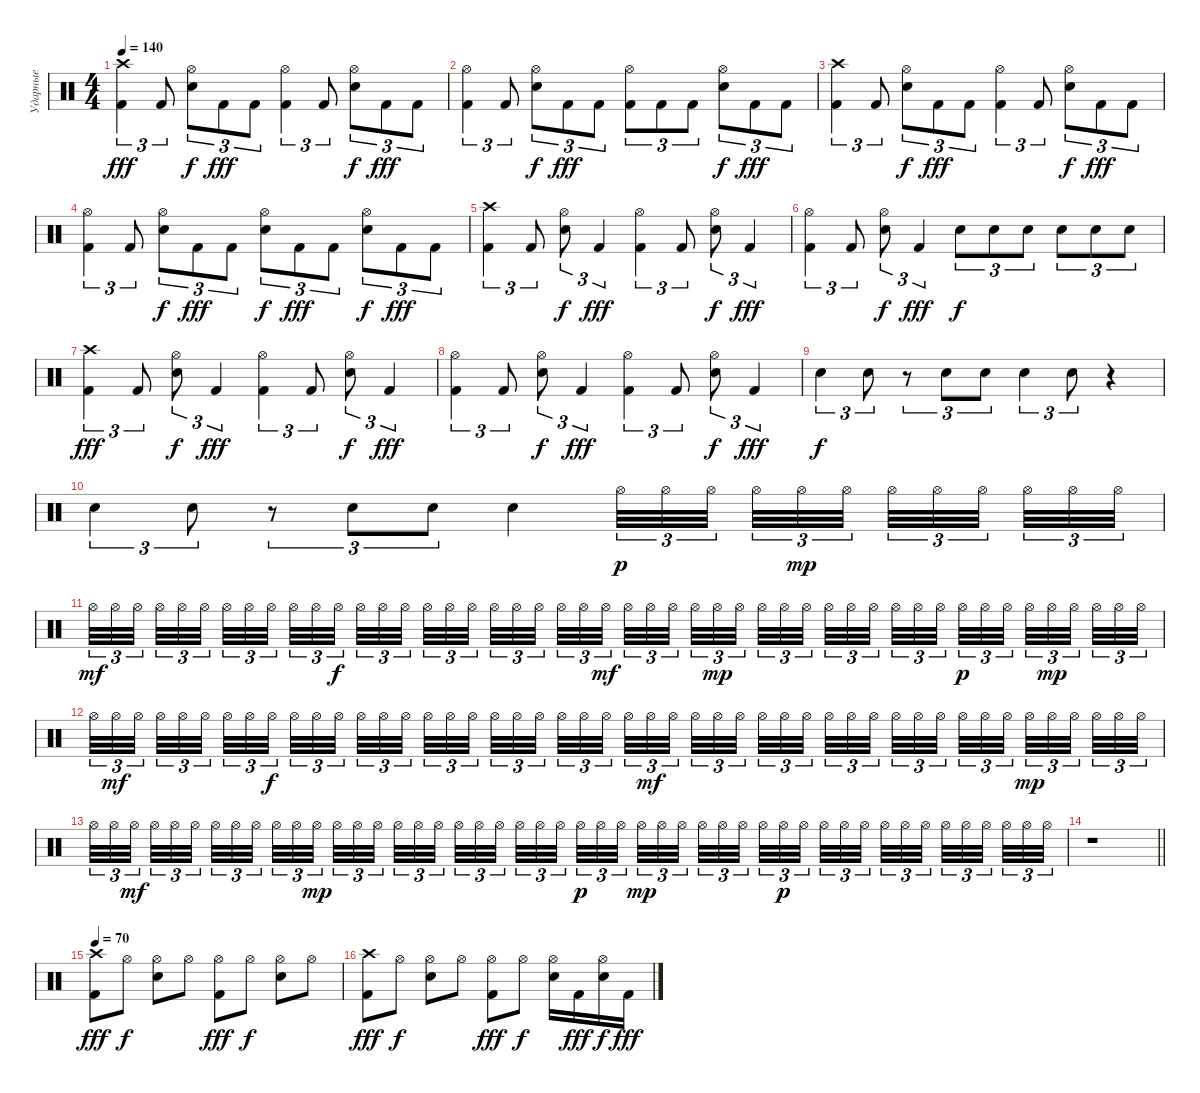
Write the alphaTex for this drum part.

\track ("Ударные" "Ударные") {instrument percussion}
\staff {score}
\articulation defaults
\ts (4 4)
\tempo 140
\clef neutral
\ks c
("Kick (hit) 2" "Crash high (hit)").4{tu (3 2) dy fff} "Kick (hit) 2".8{tu (3 2)} ("Snare (hit) 2" "Hi-Hat (open)").8{tu (3 2) dy f} "Kick (hit) 2".8{tu (3 2) dy fff} "Kick (hit) 2".8{tu (3 2)} ("Kick (hit) 2" "Hi-Hat (open)").4{tu (3 2)} "Kick (hit) 2".8{tu (3 2)} ("Snare (hit) 2" "Hi-Hat (open)").8{tu (3 2) dy f} "Kick (hit) 2".8{tu (3 2) dy fff} "Kick (hit) 2".8{tu (3 2)} |
("Kick (hit) 2" "Hi-Hat (open)").4{tu (3 2)} "Kick (hit) 2".8{tu (3 2)} ("Snare (hit) 2" "Hi-Hat (open)").8{tu (3 2) dy f} "Kick (hit) 2".8{tu (3 2) dy fff} "Kick (hit) 2".8{tu (3 2)} ("Kick (hit) 2" "Hi-Hat (open)").8{tu (3 2)} "Kick (hit) 2".8{tu (3 2)} "Kick (hit) 2".8{tu (3 2)} ("Snare (hit) 2" "Hi-Hat (open)").8{tu (3 2) dy f} "Kick (hit) 2".8{tu (3 2) dy fff} "Kick (hit) 2".8{tu (3 2)} |
("Kick (hit) 2" "Crash high (hit)").4{tu (3 2)} "Kick (hit) 2".8{tu (3 2)} ("Snare (hit) 2" "Hi-Hat (open)").8{tu (3 2) dy f} "Kick (hit) 2".8{tu (3 2) dy fff} "Kick (hit) 2".8{tu (3 2)} ("Kick (hit) 2" "Hi-Hat (open)").4{tu (3 2)} "Kick (hit) 2".8{tu (3 2)} ("Snare (hit) 2" "Hi-Hat (open)").8{tu (3 2) dy f} "Kick (hit) 2".8{tu (3 2) dy fff} "Kick (hit) 2".8{tu (3 2)} |
("Kick (hit) 2" "Hi-Hat (open)").4{tu (3 2)} "Kick (hit) 2".8{tu (3 2)} ("Snare (hit) 2" "Hi-Hat (open)").8{tu (3 2) dy f} "Kick (hit) 2".8{tu (3 2) dy fff} "Kick (hit) 2".8{tu (3 2)} ("Snare (hit) 2" "Hi-Hat (open)").8{tu (3 2) dy f} "Kick (hit) 2".8{tu (3 2) dy fff} "Kick (hit) 2".8{tu (3 2)} ("Snare (hit) 2" "Hi-Hat (open)").8{tu (3 2) dy f} "Kick (hit) 2".8{tu (3 2) dy fff} "Kick (hit) 2".8{tu (3 2)} |
("Kick (hit) 2" "Crash high (hit)").4{tu (3 2)} "Kick (hit) 2".8{tu (3 2)} ("Snare (hit) 2" "Hi-Hat (open)").8{tu (3 2) dy f} "Kick (hit) 2".4{tu (3 2) dy fff} ("Kick (hit) 2" "Hi-Hat (open)").4{tu (3 2)} "Kick (hit) 2".8{tu (3 2)} ("Snare (hit) 2" "Hi-Hat (open)").8{tu (3 2) dy f} "Kick (hit) 2".4{tu (3 2) dy fff} |
("Kick (hit) 2" "Hi-Hat (open)").4{tu (3 2)} "Kick (hit) 2".8{tu (3 2)} ("Snare (hit) 2" "Hi-Hat (open)").8{tu (3 2) dy f} "Kick (hit) 2".4{tu (3 2) dy fff} "Snare (hit) 2".8{tu (3 2) dy f} "Snare (hit) 2".8{tu (3 2)} "Snare (hit) 2".8{tu (3 2)} "Snare (hit) 2".8{tu (3 2)} "Snare (hit) 2".8{tu (3 2)} "Snare (hit) 2".8{tu (3 2)} |
("Kick (hit) 2" "Crash high (hit)").4{tu (3 2) dy fff} "Kick (hit) 2".8{tu (3 2)} ("Snare (hit) 2" "Hi-Hat (open)").8{tu (3 2) dy f} "Kick (hit) 2".4{tu (3 2) dy fff} ("Kick (hit) 2" "Hi-Hat (open)").4{tu (3 2)} "Kick (hit) 2".8{tu (3 2)} ("Snare (hit) 2" "Hi-Hat (open)").8{tu (3 2) dy f} "Kick (hit) 2".4{tu (3 2) dy fff} |
("Kick (hit) 2" "Hi-Hat (open)").4{tu (3 2)} "Kick (hit) 2".8{tu (3 2)} ("Snare (hit) 2" "Hi-Hat (open)").8{tu (3 2) dy f} "Kick (hit) 2".4{tu (3 2) dy fff} ("Kick (hit) 2" "Hi-Hat (open)").4{tu (3 2)} "Kick (hit) 2".8{tu (3 2)} ("Snare (hit) 2" "Hi-Hat (open)").8{tu (3 2) dy f} "Kick (hit) 2".4{tu (3 2) dy fff} |
"Snare (hit) 2".4{tu (3 2) dy f} "Snare (hit) 2".8{tu (3 2)} r.8{tu (3 2)} "Snare (hit) 2".8{tu (3 2)} "Snare (hit) 2".8{tu (3 2)} "Snare (hit) 2".4{tu (3 2)} "Snare (hit) 2".8{tu (3 2)} r.4 |
"Snare (hit) 2".4{tu (3 2)} "Snare (hit) 2".8{tu (3 2)} r.8{tu (3 2)} "Snare (hit) 2".8{tu (3 2)} "Snare (hit) 2".8{tu (3 2)} "Snare (hit) 2".4 "Hi-Hat (open)".32{tu (3 2) dy p} "Hi-Hat (open)".32{tu (3 2)} "Hi-Hat (open)".32{tu (3 2) beam splitsecondary} "Hi-Hat (open)".32{tu (3 2)} "Hi-Hat (open)".32{tu (3 2) dy mp} "Hi-Hat (open)".32{tu (3 2) beam splitsecondary} "Hi-Hat (open)".32{tu (3 2)} "Hi-Hat (open)".32{tu (3 2)} "Hi-Hat (open)".32{tu (3 2) beam splitsecondary} "Hi-Hat (open)".32{tu (3 2)} "Hi-Hat (open)".32{tu (3 2)} "Hi-Hat (open)".32{tu (3 2)} |
"Hi-Hat (open)".32{tu (3 2) dy mf} "Hi-Hat (open)".32{tu (3 2)} "Hi-Hat (open)".32{tu (3 2) beam splitsecondary} "Hi-Hat (open)".32{tu (3 2)} "Hi-Hat (open)".32{tu (3 2)} "Hi-Hat (open)".32{tu (3 2) beam splitsecondary} "Hi-Hat (open)".32{tu (3 2)} "Hi-Hat (open)".32{tu (3 2)} "Hi-Hat (open)".32{tu (3 2) beam splitsecondary} "Hi-Hat (open)".32{tu (3 2)} "Hi-Hat (open)".32{tu (3 2)} "Hi-Hat (open)".32{tu (3 2) dy f} "Hi-Hat (open)".32{tu (3 2)} "Hi-Hat (open)".32{tu (3 2)} "Hi-Hat (open)".32{tu (3 2) beam splitsecondary} "Hi-Hat (open)".32{tu (3 2)} "Hi-Hat (open)".32{tu (3 2)} "Hi-Hat (open)".32{tu (3 2) beam splitsecondary} "Hi-Hat (open)".32{tu (3 2)} "Hi-Hat (open)".32{tu (3 2)} "Hi-Hat (open)".32{tu (3 2) beam splitsecondary} "Hi-Hat (open)".32{tu (3 2)} "Hi-Hat (open)".32{tu (3 2)} "Hi-Hat (open)".32{tu (3 2) dy mf} "Hi-Hat (open)".32{tu (3 2)} "Hi-Hat (open)".32{tu (3 2)} "Hi-Hat (open)".32{tu (3 2) beam splitsecondary} "Hi-Hat (open)".32{tu (3 2)} "Hi-Hat (open)".32{tu (3 2) dy mp} "Hi-Hat (open)".32{tu (3 2) beam splitsecondary} "Hi-Hat (open)".32{tu (3 2)} "Hi-Hat (open)".32{tu (3 2)} "Hi-Hat (open)".32{tu (3 2) beam splitsecondary} "Hi-Hat (open)".32{tu (3 2)} "Hi-Hat (open)".32{tu (3 2)} "Hi-Hat (open)".32{tu (3 2)} "Hi-Hat (open)".32{tu (3 2)} "Hi-Hat (open)".32{tu (3 2)} "Hi-Hat (open)".32{tu (3 2) beam splitsecondary} "Hi-Hat (open)".32{tu (3 2) dy p} "Hi-Hat (open)".32{tu (3 2)} "Hi-Hat (open)".32{tu (3 2) beam splitsecondary} "Hi-Hat (open)".32{tu (3 2)} "Hi-Hat (open)".32{tu (3 2) dy mp} "Hi-Hat (open)".32{tu (3 2) beam splitsecondary} "Hi-Hat (open)".32{tu (3 2)} "Hi-Hat (open)".32{tu (3 2)} "Hi-Hat (open)".32{tu (3 2)} |
"Hi-Hat (open)".32{tu (3 2)} "Hi-Hat (open)".32{tu (3 2) dy mf} "Hi-Hat (open)".32{tu (3 2) beam splitsecondary} "Hi-Hat (open)".32{tu (3 2)} "Hi-Hat (open)".32{tu (3 2)} "Hi-Hat (open)".32{tu (3 2) beam splitsecondary} "Hi-Hat (open)".32{tu (3 2)} "Hi-Hat (open)".32{tu (3 2)} "Hi-Hat (open)".32{tu (3 2) dy f beam splitsecondary} "Hi-Hat (open)".32{tu (3 2)} "Hi-Hat (open)".32{tu (3 2)} "Hi-Hat (open)".32{tu (3 2)} "Hi-Hat (open)".32{tu (3 2)} "Hi-Hat (open)".32{tu (3 2)} "Hi-Hat (open)".32{tu (3 2) beam splitsecondary} "Hi-Hat (open)".32{tu (3 2)} "Hi-Hat (open)".32{tu (3 2)} "Hi-Hat (open)".32{tu (3 2) beam splitsecondary} "Hi-Hat (open)".32{tu (3 2)} "Hi-Hat (open)".32{tu (3 2)} "Hi-Hat (open)".32{tu (3 2) beam splitsecondary} "Hi-Hat (open)".32{tu (3 2)} "Hi-Hat (open)".32{tu (3 2)} "Hi-Hat (open)".32{tu (3 2)} "Hi-Hat (open)".32{tu (3 2)} "Hi-Hat (open)".32{tu (3 2) dy mf} "Hi-Hat (open)".32{tu (3 2) beam splitsecondary} "Hi-Hat (open)".32{tu (3 2)} "Hi-Hat (open)".32{tu (3 2)} "Hi-Hat (open)".32{tu (3 2) beam splitsecondary} "Hi-Hat (open)".32{tu (3 2)} "Hi-Hat (open)".32{tu (3 2)} "Hi-Hat (open)".32{tu (3 2) beam splitsecondary} "Hi-Hat (open)".32{tu (3 2)} "Hi-Hat (open)".32{tu (3 2)} "Hi-Hat (open)".32{tu (3 2)} "Hi-Hat (open)".32{tu (3 2)} "Hi-Hat (open)".32{tu (3 2)} "Hi-Hat (open)".32{tu (3 2) beam splitsecondary} "Hi-Hat (open)".32{tu (3 2)} "Hi-Hat (open)".32{tu (3 2)} "Hi-Hat (open)".32{tu (3 2) beam splitsecondary} "Hi-Hat (open)".32{tu (3 2) dy mp} "Hi-Hat (open)".32{tu (3 2)} "Hi-Hat (open)".32{tu (3 2) beam splitsecondary} "Hi-Hat (open)".32{tu (3 2)} "Hi-Hat (open)".32{tu (3 2)} "Hi-Hat (open)".32{tu (3 2)} |
"Hi-Hat (open)".32{tu (3 2)} "Hi-Hat (open)".32{tu (3 2)} "Hi-Hat (open)".32{tu (3 2) dy mf beam splitsecondary} "Hi-Hat (open)".32{tu (3 2)} "Hi-Hat (open)".32{tu (3 2)} "Hi-Hat (open)".32{tu (3 2) beam splitsecondary} "Hi-Hat (open)".32{tu (3 2)} "Hi-Hat (open)".32{tu (3 2)} "Hi-Hat (open)".32{tu (3 2) beam splitsecondary} "Hi-Hat (open)".32{tu (3 2)} "Hi-Hat (open)".32{tu (3 2)} "Hi-Hat (open)".32{tu (3 2) dy mp} "Hi-Hat (open)".32{tu (3 2)} "Hi-Hat (open)".32{tu (3 2)} "Hi-Hat (open)".32{tu (3 2) beam splitsecondary} "Hi-Hat (open)".32{tu (3 2)} "Hi-Hat (open)".32{tu (3 2)} "Hi-Hat (open)".32{tu (3 2) beam splitsecondary} "Hi-Hat (open)".32{tu (3 2)} "Hi-Hat (open)".32{tu (3 2)} "Hi-Hat (open)".32{tu (3 2) beam splitsecondary} "Hi-Hat (open)".32{tu (3 2)} "Hi-Hat (open)".32{tu (3 2)} "Hi-Hat (open)".32{tu (3 2)} "Hi-Hat (open)".32{tu (3 2) dy p} "Hi-Hat (open)".32{tu (3 2)} "Hi-Hat (open)".32{tu (3 2) beam splitsecondary} "Hi-Hat (open)".32{tu (3 2) dy mp} "Hi-Hat (open)".32{tu (3 2)} "Hi-Hat (open)".32{tu (3 2) beam splitsecondary} "Hi-Hat (open)".32{tu (3 2)} "Hi-Hat (open)".32{tu (3 2)} "Hi-Hat (open)".32{tu (3 2) beam splitsecondary} "Hi-Hat (open)".32{tu (3 2)} "Hi-Hat (open)".32{tu (3 2) dy p} "Hi-Hat (open)".32{tu (3 2)} "Hi-Hat (open)".32{tu (3 2)} "Hi-Hat (open)".32{tu (3 2)} "Hi-Hat (open)".32{tu (3 2) beam splitsecondary} "Hi-Hat (open)".32{tu (3 2)} "Hi-Hat (open)".32{tu (3 2)} "Hi-Hat (open)".32{tu (3 2) beam splitsecondary} "Hi-Hat (open)".32{tu (3 2)} "Hi-Hat (open)".32{tu (3 2)} "Hi-Hat (open)".32{tu (3 2) beam splitsecondary} "Hi-Hat (open)".32{tu (3 2)} "Hi-Hat (open)".32{tu (3 2)} "Hi-Hat (open)".32{tu (3 2)} |
\barLineRight lightlight
r.1 |
\tempo 70
("Kick (hit) 2" "Crash high (hit)").8{dy fff} "Hi-Hat (open)".8{dy f} ("Snare (hit) 2" "Hi-Hat (open)").8 "Hi-Hat (open)".8 ("Kick (hit) 2" "Hi-Hat (open)").8{dy fff} "Hi-Hat (open)".8{dy f} ("Snare (hit) 2" "Hi-Hat (open)").8 "Hi-Hat (open)".8 |
("Kick (hit) 2" "Crash high (hit)").8{dy fff} "Hi-Hat (open)".8{dy f} ("Snare (hit) 2" "Hi-Hat (open)").8 "Hi-Hat (open)".8 ("Kick (hit) 2" "Hi-Hat (open)").8{dy fff} "Hi-Hat (open)".8{dy f} ("Snare (hit) 2" "Hi-Hat (open)").16 "Kick (hit) 2".16{dy fff} ("Snare (hit) 2" "Hi-Hat (open)").16{dy f} "Kick (hit) 2".16{dy fff}
